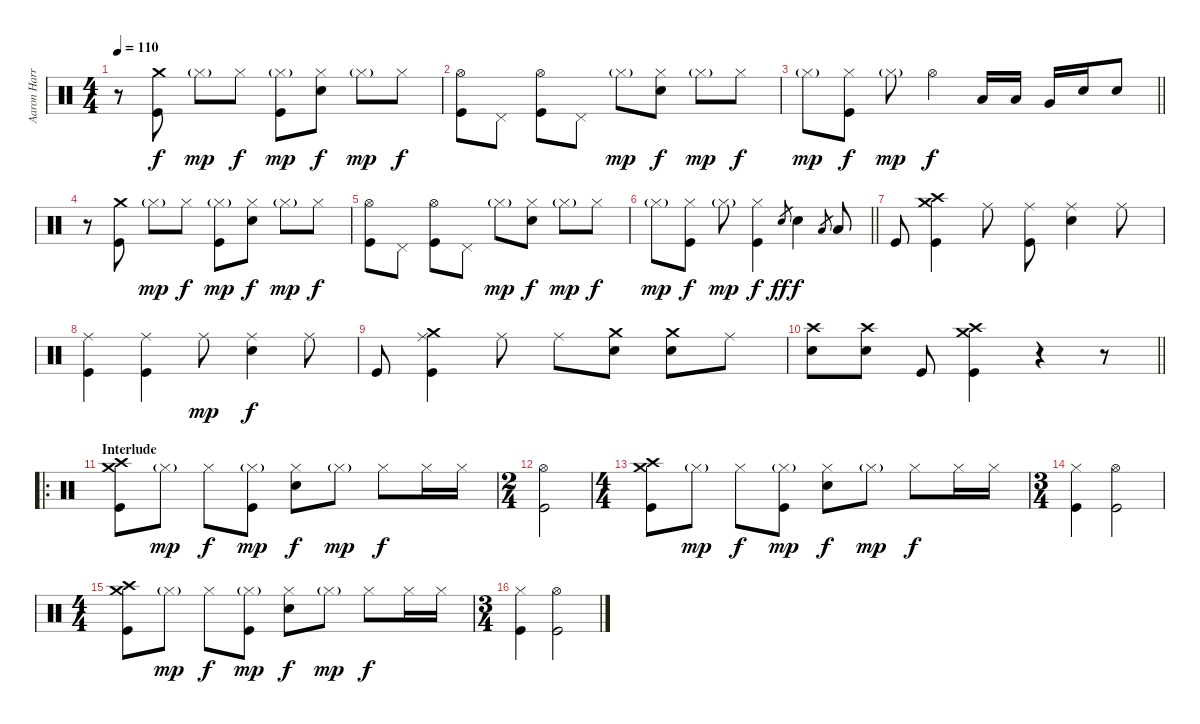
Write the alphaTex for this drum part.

\track ("Aaron Harris" "Aaron Harr") {instrument percussion}
\staff {score}
\articulation defaults
\ts (4 4)
\tempo 110
\clef neutral
\ks c
r.8{dy f} ("Crash medium (hit)" "Kick (hit)").8 "Hi-Hat (closed)"{g}.8{dy mp} "Hi-Hat (closed)".8{dy f} ("Hi-Hat (closed)"{g} "Kick (hit)").8{dy mp} ("Hi-Hat (closed)" "Electric Snare (hit)").8{dy f} "Hi-Hat (closed)"{g}.8{dy mp} "Hi-Hat (closed)".8{dy f} |
("Hi-Hat (open)" "Kick (hit)").8 "Pedal Hi-Hat (hit)".8 ("Hi-Hat (open)" "Kick (hit)").8 "Pedal Hi-Hat (hit)".8 "Hi-Hat (closed)"{g}.8{dy mp} ("Hi-Hat (closed)" "Electric Snare (hit)").8{dy f} "Hi-Hat (closed)"{g}.8{dy mp} "Hi-Hat (closed)".8{dy f} |
\barLineRight lightlight "Hi-Hat (closed)"{g}.8{dy mp}
("Hi-Hat (closed)" "Kick (hit)").8{dy f} "Hi-Hat (closed)"{g}.8{dy mp} "Hi-Hat (open)".4{dy f} "Low Tom (hit)".16 "Low Tom (hit)".16 "Very Low Tom (hit)".16 "Electric Snare (hit)".16 "Electric Snare (hit)".8 |
r.8 ("Crash medium (hit)" "Kick (hit)").8 "Hi-Hat (closed)"{g}.8{dy mp} "Hi-Hat (closed)".8{dy f} ("Hi-Hat (closed)"{g} "Kick (hit)").8{dy mp} ("Hi-Hat (closed)" "Electric Snare (hit)").8{dy f} "Hi-Hat (closed)"{g}.8{dy mp} "Hi-Hat (closed)".8{dy f} |
("Hi-Hat (open)" "Kick (hit)").8 "Pedal Hi-Hat (hit)".8 ("Hi-Hat (open)" "Kick (hit)").8 "Pedal Hi-Hat (hit)".8 "Hi-Hat (closed)"{g}.8{dy mp} ("Hi-Hat (closed)" "Electric Snare (hit)").8{dy f} "Hi-Hat (closed)"{g}.8{dy mp} "Hi-Hat (closed)".8{dy f} |
\barLineRight lightlight "Hi-Hat (closed)"{g}.8{dy mp}
("Hi-Hat (closed)" "Kick (hit)").8{dy f} "Hi-Hat (closed)"{g}.8{dy mp} ("Hi-Hat (closed)" "Kick (hit)").4{dy f} "Electric Snare (hit)".8{gr dy ff} "Electric Snare (hit)".4{dy f} "Low Tom (hit)".8{gr} "Low Tom (hit)".8 |
"Kick (hit)".8 ("Crash medium (hit)" "Crash high (hit)" "Kick (hit)").4 "Ride (middle)".8 ("Ride (middle)" "Kick (hit)").8 ("Ride (middle)" "Electric Snare (hit)").4 "Ride (middle)".8 |
("Ride (middle)" "Kick (hit)").4 ("Ride (middle)" "Kick (hit)").4 "Ride (middle)".8{dy mp} ("Ride (middle)" "Electric Snare (hit)").4{dy f} "Ride (middle)".8 |
"Kick (hit)".8 ("Crash medium (hit)" "Ride (middle)" "Kick (hit)").4 "Ride (middle)".8 "Ride (middle)".8 ("Crash medium (hit)" "Electric Snare (hit)").8 ("Crash medium (hit)" "Electric Snare (hit)").8 "Ride (middle)".8 |
\barLineRight lightlight
("Crash high (hit)" "Electric Snare (hit)").8 ("Crash high (hit)" "Electric Snare (hit)").8 "Kick (hit)".8 ("Crash medium (hit)" "Crash high (hit)" "Kick (hit)").4 r.4 r.8 |
\ro
\section ("" "Interlude")
("Crash medium (hit)" "Crash high (hit)" "Kick (hit)").8 "Hi-Hat (closed)"{g}.8{dy mp} "Hi-Hat (closed)".8{dy f} ("Hi-Hat (closed)"{g} "Kick (hit)").8{dy mp} ("Hi-Hat (closed)" "Electric Snare (hit)").8{dy f} "Hi-Hat (closed)"{g}.8{dy mp} "Hi-Hat (closed)".8{dy f} "Hi-Hat (closed)".16 "Hi-Hat (closed)".16 |
\ts (2 4)
("Hi-Hat (open)" "Kick (hit)").2 |
\ts (4 4)
("Crash medium (hit)" "Crash high (hit)" "Kick (hit)").8 "Hi-Hat (closed)"{g}.8{dy mp} "Hi-Hat (closed)".8{dy f} ("Hi-Hat (closed)"{g} "Kick (hit)").8{dy mp} ("Hi-Hat (closed)" "Electric Snare (hit)").8{dy f} "Hi-Hat (closed)"{g}.8{dy mp} "Hi-Hat (closed)".8{dy f} "Hi-Hat (closed)".16 "Hi-Hat (closed)".16 |
\ts (3 4)
("Hi-Hat (closed)" "Kick (hit)").4 ("Hi-Hat (open)" "Kick (hit)").2 |
\ts (4 4)
("Crash medium (hit)" "Crash high (hit)" "Kick (hit)").8 "Hi-Hat (closed)"{g}.8{dy mp} "Hi-Hat (closed)".8{dy f} ("Hi-Hat (closed)"{g} "Kick (hit)").8{dy mp} ("Hi-Hat (closed)" "Electric Snare (hit)").8{dy f} "Hi-Hat (closed)"{g}.8{dy mp} "Hi-Hat (closed)".8{dy f} "Hi-Hat (closed)".16 "Hi-Hat (closed)".16 |
\ts (3 4)
("Hi-Hat (closed)" "Kick (hit)").4 ("Hi-Hat (open)" "Kick (hit)").2
